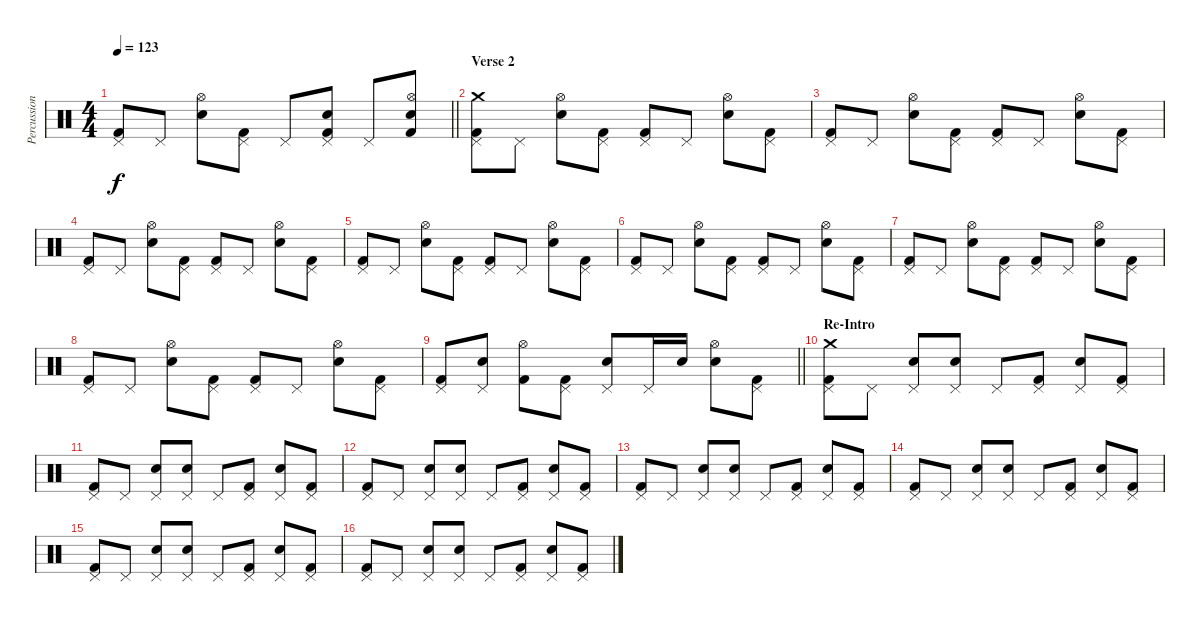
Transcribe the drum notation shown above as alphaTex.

\track ("Percussion 1" "Percussion") {instrument percussion}
\staff {score}
\articulation defaults
\ts (4 4)
\tempo 123
\clef neutral
\barLineRight lightlight
\ks c
("Pedal Hi-Hat (hit)" "Kick (hit) 2").8{dy f} "Pedal Hi-Hat (hit)".8 ("Hi-Hat (open)" "Electric Snare (hit)").8 ("Pedal Hi-Hat (hit)" "Kick (hit) 2").8 "Pedal Hi-Hat (hit)".8 ("Pedal Hi-Hat (hit)" "Electric Snare (hit)" "Kick (hit) 2").8 "Pedal Hi-Hat (hit)".8 ("Hi-Hat (open)" "Electric Snare (hit)" "Kick (hit) 2").8 |
\section ("" "Verse 2")
("Pedal Hi-Hat (hit)" "Crash medium (hit)" "Kick (hit) 2").8 "Pedal Hi-Hat (hit)".8 ("Hi-Hat (open)" "Electric Snare (hit)").8 ("Pedal Hi-Hat (hit)" "Kick (hit) 2").8 ("Pedal Hi-Hat (hit)" "Kick (hit) 2").8 "Pedal Hi-Hat (hit)".8 ("Hi-Hat (open)" "Electric Snare (hit)").8 ("Pedal Hi-Hat (hit)" "Kick (hit) 2").8 |
("Pedal Hi-Hat (hit)" "Kick (hit) 2").8 "Pedal Hi-Hat (hit)".8 ("Hi-Hat (open)" "Electric Snare (hit)").8 ("Pedal Hi-Hat (hit)" "Kick (hit) 2").8 ("Pedal Hi-Hat (hit)" "Kick (hit) 2").8 "Pedal Hi-Hat (hit)".8 ("Hi-Hat (open)" "Electric Snare (hit)").8 ("Pedal Hi-Hat (hit)" "Kick (hit) 2").8 |
("Pedal Hi-Hat (hit)" "Kick (hit) 2").8 "Pedal Hi-Hat (hit)".8 ("Hi-Hat (open)" "Electric Snare (hit)").8 ("Pedal Hi-Hat (hit)" "Kick (hit) 2").8 ("Pedal Hi-Hat (hit)" "Kick (hit) 2").8 "Pedal Hi-Hat (hit)".8 ("Hi-Hat (open)" "Electric Snare (hit)").8 ("Pedal Hi-Hat (hit)" "Kick (hit) 2").8 |
("Pedal Hi-Hat (hit)" "Kick (hit) 2").8 "Pedal Hi-Hat (hit)".8 ("Hi-Hat (open)" "Electric Snare (hit)").8 ("Pedal Hi-Hat (hit)" "Kick (hit) 2").8 ("Pedal Hi-Hat (hit)" "Kick (hit) 2").8 "Pedal Hi-Hat (hit)".8 ("Hi-Hat (open)" "Electric Snare (hit)").8 ("Pedal Hi-Hat (hit)" "Kick (hit) 2").8 |
("Pedal Hi-Hat (hit)" "Kick (hit) 2").8 "Pedal Hi-Hat (hit)".8 ("Hi-Hat (open)" "Electric Snare (hit)").8 ("Pedal Hi-Hat (hit)" "Kick (hit) 2").8 ("Pedal Hi-Hat (hit)" "Kick (hit) 2").8 "Pedal Hi-Hat (hit)".8 ("Hi-Hat (open)" "Electric Snare (hit)").8 ("Pedal Hi-Hat (hit)" "Kick (hit) 2").8 |
("Pedal Hi-Hat (hit)" "Kick (hit) 2").8 "Pedal Hi-Hat (hit)".8 ("Hi-Hat (open)" "Electric Snare (hit)").8 ("Pedal Hi-Hat (hit)" "Kick (hit) 2").8 ("Pedal Hi-Hat (hit)" "Kick (hit) 2").8 "Pedal Hi-Hat (hit)".8 ("Hi-Hat (open)" "Electric Snare (hit)").8 ("Pedal Hi-Hat (hit)" "Kick (hit) 2").8 |
("Pedal Hi-Hat (hit)" "Kick (hit) 2").8 "Pedal Hi-Hat (hit)".8 ("Hi-Hat (open)" "Electric Snare (hit)").8 ("Pedal Hi-Hat (hit)" "Kick (hit) 2").8 ("Pedal Hi-Hat (hit)" "Kick (hit) 2").8 "Pedal Hi-Hat (hit)".8 ("Hi-Hat (open)" "Electric Snare (hit)").8 ("Pedal Hi-Hat (hit)" "Kick (hit) 2").8 |
\barLineRight lightlight
("Pedal Hi-Hat (hit)" "Kick (hit) 2").8 ("Pedal Hi-Hat (hit)" "Electric Snare (hit)").8 ("Hi-Hat (open)" "Kick (hit) 2").8 ("Pedal Hi-Hat (hit)" "Kick (hit) 2").8 ("Pedal Hi-Hat (hit)" "Electric Snare (hit)").8 "Pedal Hi-Hat (hit)".16 "Electric Snare (hit)".16 ("Hi-Hat (open)" "Electric Snare (hit)").8 ("Pedal Hi-Hat (hit)" "Kick (hit) 2").8 |
\section ("" "Re-Intro")
("Pedal Hi-Hat (hit)" "Crash medium (hit)" "Kick (hit) 2").8 "Pedal Hi-Hat (hit)".8 ("Pedal Hi-Hat (hit)" "Electric Snare (hit)").8 ("Pedal Hi-Hat (hit)" "Electric Snare (hit)").8 "Pedal Hi-Hat (hit)".8 ("Pedal Hi-Hat (hit)" "Kick (hit) 2").8 ("Pedal Hi-Hat (hit)" "Electric Snare (hit)").8 ("Pedal Hi-Hat (hit)" "Kick (hit) 2").8 |
("Pedal Hi-Hat (hit)" "Kick (hit) 2").8 "Pedal Hi-Hat (hit)".8 ("Pedal Hi-Hat (hit)" "Electric Snare (hit)").8 ("Pedal Hi-Hat (hit)" "Electric Snare (hit)").8 "Pedal Hi-Hat (hit)".8 ("Pedal Hi-Hat (hit)" "Kick (hit) 2").8 ("Pedal Hi-Hat (hit)" "Electric Snare (hit)").8 ("Pedal Hi-Hat (hit)" "Kick (hit) 2").8 |
("Pedal Hi-Hat (hit)" "Kick (hit) 2").8 "Pedal Hi-Hat (hit)".8 ("Pedal Hi-Hat (hit)" "Electric Snare (hit)").8 ("Pedal Hi-Hat (hit)" "Electric Snare (hit)").8 "Pedal Hi-Hat (hit)".8 ("Pedal Hi-Hat (hit)" "Kick (hit) 2").8 ("Pedal Hi-Hat (hit)" "Electric Snare (hit)").8 ("Pedal Hi-Hat (hit)" "Kick (hit) 2").8 |
("Pedal Hi-Hat (hit)" "Kick (hit) 2").8 "Pedal Hi-Hat (hit)".8 ("Pedal Hi-Hat (hit)" "Electric Snare (hit)").8 ("Pedal Hi-Hat (hit)" "Electric Snare (hit)").8 "Pedal Hi-Hat (hit)".8 ("Pedal Hi-Hat (hit)" "Kick (hit) 2").8 ("Pedal Hi-Hat (hit)" "Electric Snare (hit)").8 ("Pedal Hi-Hat (hit)" "Kick (hit) 2").8 |
("Pedal Hi-Hat (hit)" "Kick (hit) 2").8 "Pedal Hi-Hat (hit)".8 ("Pedal Hi-Hat (hit)" "Electric Snare (hit)").8 ("Pedal Hi-Hat (hit)" "Electric Snare (hit)").8 "Pedal Hi-Hat (hit)".8 ("Pedal Hi-Hat (hit)" "Kick (hit) 2").8 ("Pedal Hi-Hat (hit)" "Electric Snare (hit)").8 ("Pedal Hi-Hat (hit)" "Kick (hit) 2").8 |
("Pedal Hi-Hat (hit)" "Kick (hit) 2").8 "Pedal Hi-Hat (hit)".8 ("Pedal Hi-Hat (hit)" "Electric Snare (hit)").8 ("Pedal Hi-Hat (hit)" "Electric Snare (hit)").8 "Pedal Hi-Hat (hit)".8 ("Pedal Hi-Hat (hit)" "Kick (hit) 2").8 ("Pedal Hi-Hat (hit)" "Electric Snare (hit)").8 ("Pedal Hi-Hat (hit)" "Kick (hit) 2").8 |
("Pedal Hi-Hat (hit)" "Kick (hit) 2").8 "Pedal Hi-Hat (hit)".8 ("Pedal Hi-Hat (hit)" "Electric Snare (hit)").8 ("Pedal Hi-Hat (hit)" "Electric Snare (hit)").8 "Pedal Hi-Hat (hit)".8 ("Pedal Hi-Hat (hit)" "Kick (hit) 2").8 ("Pedal Hi-Hat (hit)" "Electric Snare (hit)").8 ("Pedal Hi-Hat (hit)" "Kick (hit) 2").8
